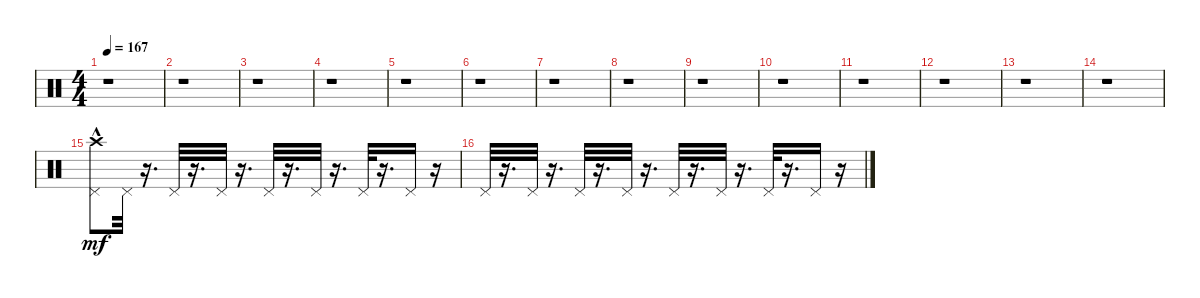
\track "" {instrument percussion}
\staff {score}
\articulation defaults
\ts (4 4)
\tempo 167
\clef neutral
\ks c
r.1{dy mf} |
r.1 |
r.1 |
r.1 |
r.1 |
r.1 |
r.1 |
r.1 |
r.1 |
r.1 |
r.1 |
r.1 |
r.1 |
r.1 |
("Crash high (hit)"{hac} "Pedal Hi-Hat (hit)").8 "Pedal Hi-Hat (hit)".32 r.16{d} "Pedal Hi-Hat (hit)".32 r.16{d} "Pedal Hi-Hat (hit)".32 r.16{d} "Pedal Hi-Hat (hit)".32 r.16{d} "Pedal Hi-Hat (hit)".32 r.16{d} "Pedal Hi-Hat (hit)".32 r.16{d} "Pedal Hi-Hat (hit)".16 r.16 |
"Pedal Hi-Hat (hit)".32 r.16{d} "Pedal Hi-Hat (hit)".32 r.16{d} "Pedal Hi-Hat (hit)".32 r.16{d} "Pedal Hi-Hat (hit)".32 r.16{d} "Pedal Hi-Hat (hit)".32 r.16{d} "Pedal Hi-Hat (hit)".32 r.16{d} "Pedal Hi-Hat (hit)".32 r.16{d} "Pedal Hi-Hat (hit)".16 r.16
